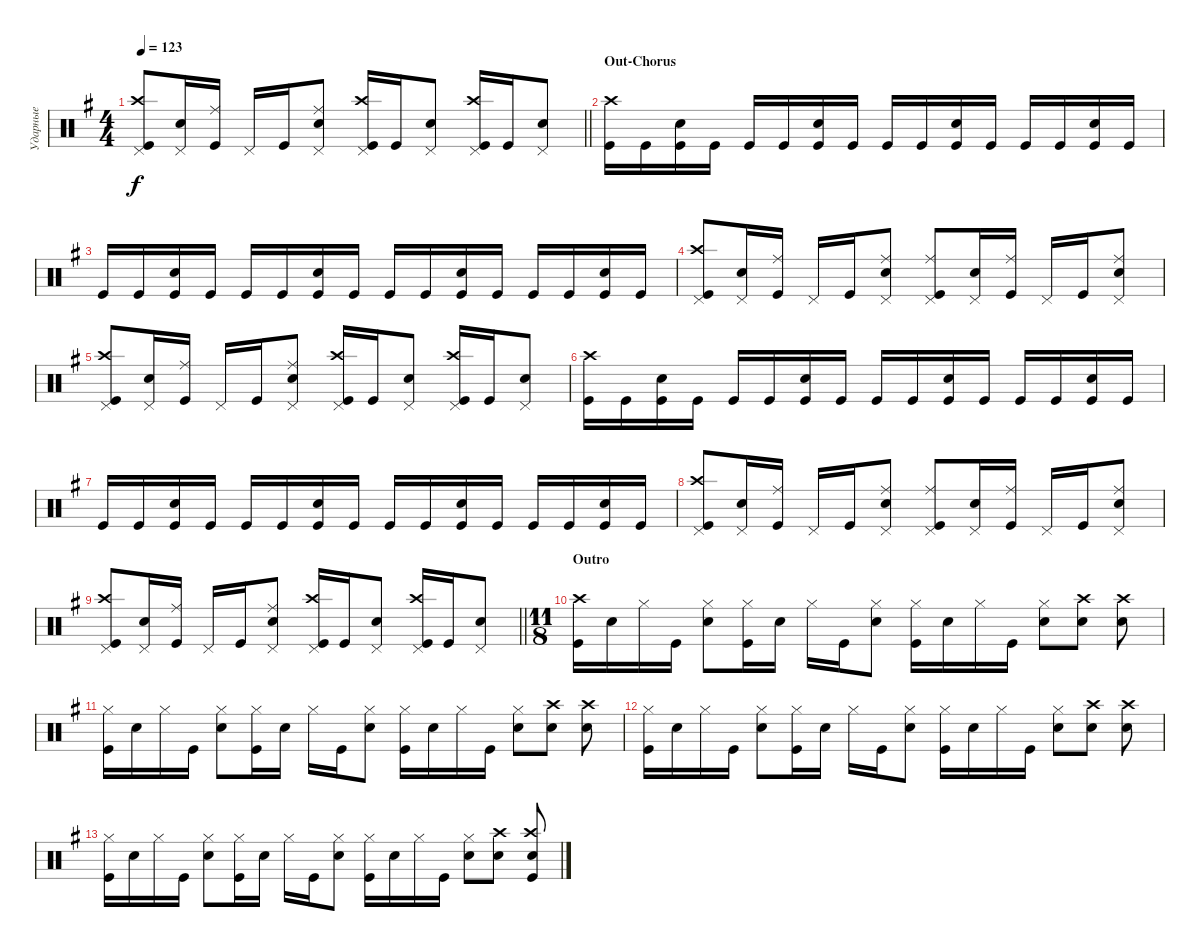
\track ("Ударные" "Ударные") {instrument percussion}
\staff {score}
\articulation defaults
\ts (4 4)
\tempo 123
\clef neutral
\barLineRight lightlight
\ks eminor
("Kick (hit)" "Crash high (hit)" "Pedal Hi-Hat (hit)").8{dy f} ("Snare (hit) 2" "Pedal Hi-Hat (hit)").16 ("Kick (hit)" "Ride (middle)").16 "Pedal Hi-Hat (hit)".16 "Kick (hit)".16 ("Snare (hit) 2" "Ride (middle)" "Pedal Hi-Hat (hit)").8 ("Kick (hit)" "Crash high (hit)" "Pedal Hi-Hat (hit)").16 "Kick (hit)".16 ("Snare (hit) 2" "Pedal Hi-Hat (hit)").8 ("Kick (hit)" "Crash high (hit)" "Pedal Hi-Hat (hit)").16 "Kick (hit)".16 ("Snare (hit) 2" "Pedal Hi-Hat (hit)").8 |
\section ("" "Out-Chorus")
("Kick (hit)" "Crash high (hit)").16 "Kick (hit)".16 ("Kick (hit)" "Snare (hit) 2").16 "Kick (hit)".16 "Kick (hit)".16 "Kick (hit)".16 ("Kick (hit)" "Snare (hit) 2").16 "Kick (hit)".16 "Kick (hit)".16 "Kick (hit)".16 ("Kick (hit)" "Snare (hit) 2").16 "Kick (hit)".16 "Kick (hit)".16 "Kick (hit)".16 ("Kick (hit)" "Snare (hit) 2").16 "Kick (hit)".16 |
"Kick (hit)".16 "Kick (hit)".16 ("Kick (hit)" "Snare (hit) 2").16 "Kick (hit)".16 "Kick (hit)".16 "Kick (hit)".16 ("Kick (hit)" "Snare (hit) 2").16 "Kick (hit)".16 "Kick (hit)".16 "Kick (hit)".16 ("Kick (hit)" "Snare (hit) 2").16 "Kick (hit)".16 "Kick (hit)".16 "Kick (hit)".16 ("Kick (hit)" "Snare (hit) 2").16 "Kick (hit)".16 |
("Kick (hit)" "Crash high (hit)" "Pedal Hi-Hat (hit)").8 ("Snare (hit) 2" "Pedal Hi-Hat (hit)").16 ("Kick (hit)" "Ride (middle)").16 "Pedal Hi-Hat (hit)".16 "Kick (hit)".16 ("Snare (hit) 2" "Ride (middle)" "Pedal Hi-Hat (hit)").8 ("Kick (hit)" "Ride (middle)" "Pedal Hi-Hat (hit)").8 ("Snare (hit) 2" "Pedal Hi-Hat (hit)").16 ("Kick (hit)" "Ride (middle)").16 "Pedal Hi-Hat (hit)".16 "Kick (hit)".16 ("Snare (hit) 2" "Ride (middle)" "Pedal Hi-Hat (hit)").8 |
("Kick (hit)" "Crash high (hit)" "Pedal Hi-Hat (hit)").8 ("Snare (hit) 2" "Pedal Hi-Hat (hit)").16 ("Kick (hit)" "Ride (middle)").16 "Pedal Hi-Hat (hit)".16 "Kick (hit)".16 ("Snare (hit) 2" "Ride (middle)" "Pedal Hi-Hat (hit)").8 ("Kick (hit)" "Crash high (hit)" "Pedal Hi-Hat (hit)").16 "Kick (hit)".16 ("Snare (hit) 2" "Pedal Hi-Hat (hit)").8 ("Kick (hit)" "Crash high (hit)" "Pedal Hi-Hat (hit)").16 "Kick (hit)".16 ("Snare (hit) 2" "Pedal Hi-Hat (hit)").8 |
("Kick (hit)" "Crash high (hit)").16 "Kick (hit)".16 ("Kick (hit)" "Snare (hit) 2").16 "Kick (hit)".16 "Kick (hit)".16 "Kick (hit)".16 ("Kick (hit)" "Snare (hit) 2").16 "Kick (hit)".16 "Kick (hit)".16 "Kick (hit)".16 ("Kick (hit)" "Snare (hit) 2").16 "Kick (hit)".16 "Kick (hit)".16 "Kick (hit)".16 ("Kick (hit)" "Snare (hit) 2").16 "Kick (hit)".16 |
"Kick (hit)".16 "Kick (hit)".16 ("Kick (hit)" "Snare (hit) 2").16 "Kick (hit)".16 "Kick (hit)".16 "Kick (hit)".16 ("Kick (hit)" "Snare (hit) 2").16 "Kick (hit)".16 "Kick (hit)".16 "Kick (hit)".16 ("Kick (hit)" "Snare (hit) 2").16 "Kick (hit)".16 "Kick (hit)".16 "Kick (hit)".16 ("Kick (hit)" "Snare (hit) 2").16 "Kick (hit)".16 |
("Kick (hit)" "Crash high (hit)" "Pedal Hi-Hat (hit)").8 ("Snare (hit) 2" "Pedal Hi-Hat (hit)").16 ("Kick (hit)" "Ride (middle)").16 "Pedal Hi-Hat (hit)".16 "Kick (hit)".16 ("Snare (hit) 2" "Ride (middle)" "Pedal Hi-Hat (hit)").8 ("Kick (hit)" "Ride (middle)" "Pedal Hi-Hat (hit)").8 ("Snare (hit) 2" "Pedal Hi-Hat (hit)").16 ("Kick (hit)" "Ride (middle)").16 "Pedal Hi-Hat (hit)".16 "Kick (hit)".16 ("Snare (hit) 2" "Ride (middle)" "Pedal Hi-Hat (hit)").8 |
\barLineRight lightlight
("Kick (hit)" "Crash high (hit)" "Pedal Hi-Hat (hit)").8 ("Snare (hit) 2" "Pedal Hi-Hat (hit)").16 ("Kick (hit)" "Ride (middle)").16 "Pedal Hi-Hat (hit)".16 "Kick (hit)".16 ("Snare (hit) 2" "Ride (middle)" "Pedal Hi-Hat (hit)").8 ("Kick (hit)" "Crash high (hit)" "Pedal Hi-Hat (hit)").16 "Kick (hit)".16 ("Snare (hit) 2" "Pedal Hi-Hat (hit)").8 ("Kick (hit)" "Crash high (hit)" "Pedal Hi-Hat (hit)").16 "Kick (hit)".16 ("Snare (hit) 2" "Pedal Hi-Hat (hit)").8 |
\ts (11 8)
\section ("" "Outro")
("Kick (hit)" "Crash high (hit)").16 "Snare (hit) 2".16 "Hi-Hat (closed)".16 "Kick (hit)".16 ("Snare (hit) 2" "Hi-Hat (closed)").8 ("Kick (hit)" "Hi-Hat (closed)").16 "Snare (hit) 2".16 "Hi-Hat (closed)".16 "Kick (hit)".16 ("Snare (hit) 2" "Hi-Hat (closed)").8 ("Kick (hit)" "Hi-Hat (closed)").16 "Snare (hit) 2".16 "Hi-Hat (closed)".16 "Kick (hit)".16 ("Snare (hit) 2" "Hi-Hat (closed)").8 ("Snare (hit) 2" "Crash high (hit)").8 ("Snare (hit) 2" "Crash high (hit)").8 |
("Kick (hit)" "Hi-Hat (closed)").16 "Snare (hit) 2".16 "Hi-Hat (closed)".16 "Kick (hit)".16 ("Snare (hit) 2" "Hi-Hat (closed)").8 ("Kick (hit)" "Hi-Hat (closed)").16 "Snare (hit) 2".16 "Hi-Hat (closed)".16 "Kick (hit)".16 ("Snare (hit) 2" "Hi-Hat (closed)").8 ("Kick (hit)" "Hi-Hat (closed)").16 "Snare (hit) 2".16 "Hi-Hat (closed)".16 "Kick (hit)".16 ("Snare (hit) 2" "Hi-Hat (closed)").8 ("Snare (hit) 2" "Crash high (hit)").8 ("Snare (hit) 2" "Crash high (hit)").8 |
("Kick (hit)" "Hi-Hat (closed)").16 "Snare (hit) 2".16 "Hi-Hat (closed)".16 "Kick (hit)".16 ("Snare (hit) 2" "Hi-Hat (closed)").8 ("Kick (hit)" "Hi-Hat (closed)").16 "Snare (hit) 2".16 "Hi-Hat (closed)".16 "Kick (hit)".16 ("Snare (hit) 2" "Hi-Hat (closed)").8 ("Kick (hit)" "Hi-Hat (closed)").16 "Snare (hit) 2".16 "Hi-Hat (closed)".16 "Kick (hit)".16 ("Snare (hit) 2" "Hi-Hat (closed)").8 ("Snare (hit) 2" "Crash high (hit)").8 ("Snare (hit) 2" "Crash high (hit)").8 |
("Kick (hit)" "Hi-Hat (closed)").16 "Snare (hit) 2".16 "Hi-Hat (closed)".16 "Kick (hit)".16 ("Snare (hit) 2" "Hi-Hat (closed)").8 ("Kick (hit)" "Hi-Hat (closed)").16 "Snare (hit) 2".16 "Hi-Hat (closed)".16 "Kick (hit)".16 ("Snare (hit) 2" "Hi-Hat (closed)").8 ("Kick (hit)" "Hi-Hat (closed)").16 "Snare (hit) 2".16 "Hi-Hat (closed)".16 "Kick (hit)".16 ("Snare (hit) 2" "Hi-Hat (closed)").8 ("Snare (hit) 2" "Crash high (hit)").8 ("Snare (hit) 2" "Crash high (hit)" "Kick (hit)").8
